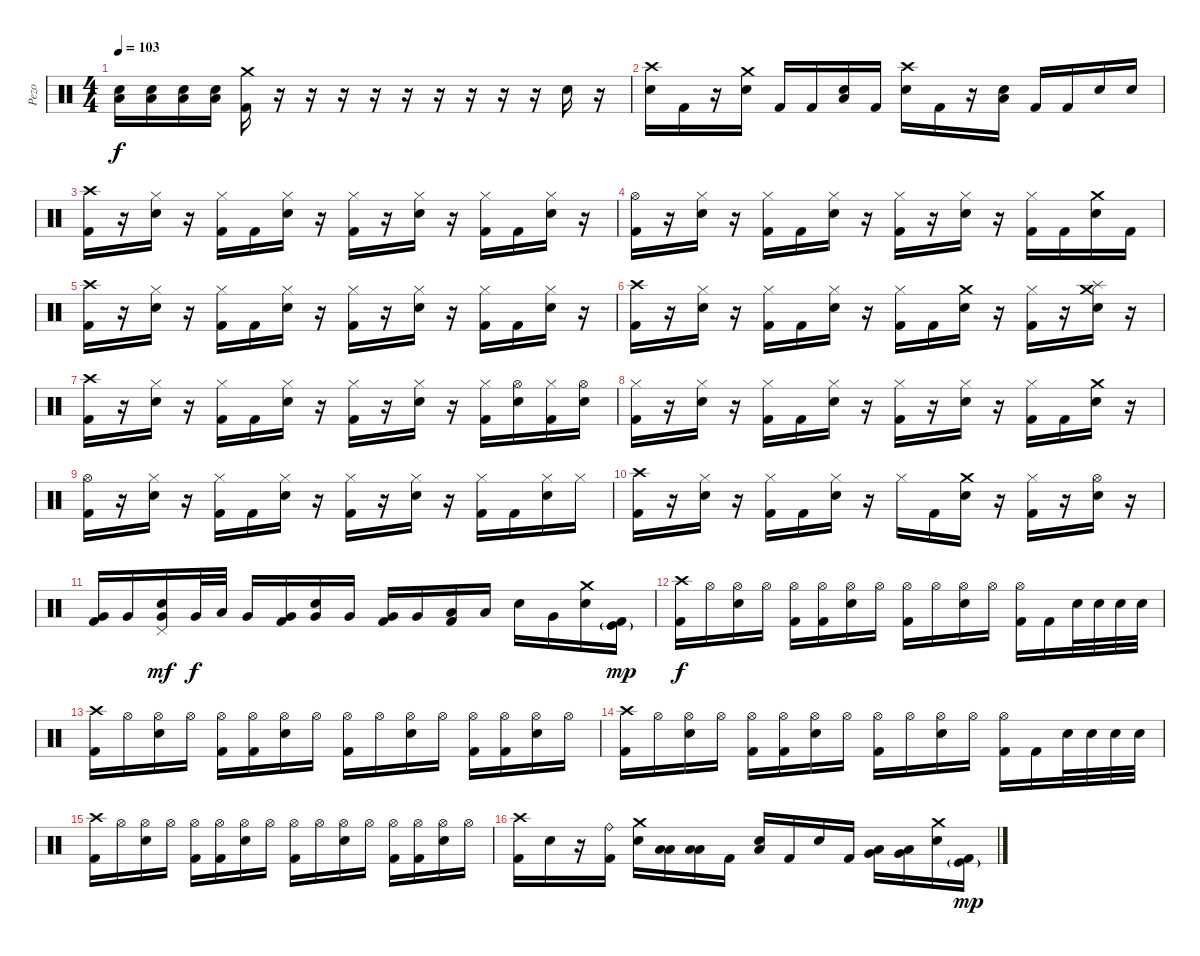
\track ("Pezo" "Pezo") {instrument percussion}
\staff {score}
\articulation defaults
\ts (4 4)
\tempo 103
\clef neutral
\ks c
("Low Floor Tom (hit)" "Electric Snare (hit)").16{dy f} ("Low Floor Tom (hit)" "Electric Snare (hit)").16 ("Low Floor Tom (hit)" "Electric Snare (hit)").16 ("Low Floor Tom (hit)" "Electric Snare (hit)").16 ("Crash medium (hit)" "Kick (hit) 2").16 r.16 r.16 r.16 r.16 r.16 r.16 r.16 r.16 r.16 "Electric Snare (hit)".16 r.16 |
("Crash high (hit)" "Electric Snare (hit)").16 "Kick (hit) 2".16 r.16 ("Crash medium (hit)" "Electric Snare (hit)").16 "Kick (hit) 2".16 "Kick (hit) 2".16 ("Low Floor Tom (hit)" "Electric Snare (hit)").16 "Kick (hit) 2".16 ("Crash high (hit)" "Electric Snare (hit)").16 "Kick (hit) 2".16 r.16 ("Low Floor Tom (hit)" "Electric Snare (hit)").16 "Kick (hit) 2".16 "Kick (hit) 2".16 "Electric Snare (hit)".16 "Electric Snare (hit)".16 |
("Crash high (hit)" "Kick (hit) 2").16 r.16 ("Hi-Hat (closed)" "Electric Snare (hit)").16 r.16 ("Hi-Hat (closed)" "Kick (hit) 2").16 "Kick (hit) 2".16 ("Hi-Hat (closed)" "Electric Snare (hit)").16 r.16 ("Hi-Hat (closed)" "Kick (hit) 2").16 r.16 ("Hi-Hat (closed)" "Electric Snare (hit)").16 r.16 ("Hi-Hat (closed)" "Kick (hit) 2").16 "Kick (hit) 2".16 ("Hi-Hat (closed)" "Electric Snare (hit)").16 r.16 |
("Hi-Hat (open)" "Kick (hit) 2").16 r.16 ("Hi-Hat (closed)" "Electric Snare (hit)").16 r.16 ("Hi-Hat (closed)" "Kick (hit) 2").16 "Kick (hit) 2".16 ("Hi-Hat (closed)" "Electric Snare (hit)").16 r.16 ("Hi-Hat (closed)" "Kick (hit) 2").16 r.16 ("Hi-Hat (closed)" "Electric Snare (hit)").16 r.16 ("Hi-Hat (closed)" "Kick (hit) 2").16 "Kick (hit) 2".16 ("Crash medium (hit)" "Electric Snare (hit)").16 "Kick (hit) 2".16 |
("Crash high (hit)" "Kick (hit) 2").16 r.16 ("Hi-Hat (closed)" "Electric Snare (hit)").16 r.16 ("Hi-Hat (closed)" "Kick (hit) 2").16 "Kick (hit) 2".16 ("Hi-Hat (closed)" "Electric Snare (hit)").16 r.16 ("Hi-Hat (closed)" "Kick (hit) 2").16 r.16 ("Hi-Hat (closed)" "Electric Snare (hit)").16 r.16 ("Hi-Hat (closed)" "Kick (hit) 2").16 "Kick (hit) 2".16 ("Hi-Hat (closed)" "Electric Snare (hit)").16 r.16 |
("Crash high (hit)" "Kick (hit) 2").16 r.16 ("Hi-Hat (closed)" "Electric Snare (hit)").16 r.16 ("Hi-Hat (closed)" "Kick (hit) 2").16 "Kick (hit) 2".16 ("Hi-Hat (closed)" "Electric Snare (hit)").16 r.16 ("Hi-Hat (closed)" "Kick (hit) 2").16 "Kick (hit) 2".16 ("Crash medium (hit)" "Electric Snare (hit)").16 r.16 ("Hi-Hat (closed)" "Kick (hit) 2").16 r.16 ("Crash medium (hit)" "Splash (hit)" "Electric Snare (hit)").16 r.16 |
("Crash high (hit)" "Kick (hit) 2").16 r.16 ("Hi-Hat (closed)" "Electric Snare (hit)").16 r.16 ("Hi-Hat (closed)" "Kick (hit) 2").16 "Kick (hit) 2".16 ("Hi-Hat (closed)" "Electric Snare (hit)").16 r.16 ("Hi-Hat (closed)" "Kick (hit) 2").16 r.16 ("Hi-Hat (closed)" "Electric Snare (hit)").16 r.16 ("Hi-Hat (closed)" "Kick (hit) 2").16 ("Hi-Hat (open)" "Electric Snare (hit)").16 ("Hi-Hat (closed)" "Kick (hit) 2").16 ("Hi-Hat (open)" "Electric Snare (hit)").16 |
("Hi-Hat (closed)" "Kick (hit) 2").16 r.16 ("Hi-Hat (closed)" "Electric Snare (hit)").16 r.16 ("Hi-Hat (closed)" "Kick (hit) 2").16 "Kick (hit) 2".16 ("Hi-Hat (closed)" "Electric Snare (hit)").16 r.16 ("Hi-Hat (closed)" "Kick (hit) 2").16 r.16 ("Hi-Hat (closed)" "Electric Snare (hit)").16 r.16 ("Hi-Hat (closed)" "Kick (hit) 2").16 "Kick (hit) 2".16 ("Crash medium (hit)" "Electric Snare (hit)").16 r.16 |
("Hi-Hat (open)" "Kick (hit) 2").16 r.16 ("Hi-Hat (closed)" "Electric Snare (hit)").16 r.16 ("Hi-Hat (closed)" "Kick (hit) 2").16 "Kick (hit) 2".16 ("Hi-Hat (closed)" "Electric Snare (hit)").16 r.16 ("Hi-Hat (closed)" "Kick (hit) 2").16 r.16 ("Hi-Hat (closed)" "Electric Snare (hit)").16 r.16 ("Hi-Hat (closed)" "Kick (hit) 2").16 "Kick (hit) 2".16 ("Hi-Hat (closed)" "Electric Snare (hit)").16 "Hi-Hat (closed)".16 |
("Crash high (hit)" "Kick (hit) 2").16 r.16 ("Hi-Hat (closed)" "Electric Snare (hit)").16 r.16 ("Hi-Hat (closed)" "Kick (hit) 2").16 "Kick (hit) 2".16 ("Hi-Hat (closed)" "Electric Snare (hit)").16 r.16 "Hi-Hat (closed)".16 "Kick (hit) 2".16 ("Crash medium (hit)" "Electric Snare (hit)").16 r.16 ("Hi-Hat (closed)" "Kick (hit) 2").16 r.16 ("Hi-Hat (open)" "Electric Snare (hit)").16 r.16 |
("Very Low Tom (hit)" "Kick (hit) 2").16 "Very Low Tom (hit)".16 ("Very Low Tom (hit)" "Electric Snare (hit)" "Pedal Hi-Hat (hit)").16{dy mf} "Very Low Tom (hit)".32{dy f} "Low Tom (hit)".32 "Very Low Tom (hit)".16 ("Very Low Tom (hit)" "Kick (hit) 2").16 ("Very Low Tom (hit)" "Electric Snare (hit)").16 "Very Low Tom (hit)".16 ("Very Low Tom (hit)" "Kick (hit) 2").16 "Very Low Tom (hit)".16 ("Low Tom (hit)" "Kick (hit) 2").16 "Low Tom (hit)".16 "Electric Snare (hit)".16 "Very Low Tom (hit)".16 ("Crash medium (hit)" "Electric Snare (hit)").16 ("Kick (hit)"{g} "Kick (hit) 2").16{dy mp} |
("Crash high (hit)" "Kick (hit) 2").16{dy f} "Hi-Hat (open)".16 ("Hi-Hat (open)" "Electric Snare (hit)").16 "Hi-Hat (open)".16 ("Hi-Hat (open)" "Kick (hit) 2").16 ("Hi-Hat (open)" "Kick (hit) 2").16 ("Hi-Hat (open)" "Electric Snare (hit)").16 "Hi-Hat (open)".16 ("Hi-Hat (open)" "Kick (hit) 2").16 "Hi-Hat (open)".16 ("Hi-Hat (open)" "Electric Snare (hit)").16 "Hi-Hat (open)".16 ("Hi-Hat (open)" "Kick (hit) 2").16 "Kick (hit) 2".16 "Electric Snare (hit)".32 "Electric Snare (hit)".32 "Electric Snare (hit)".32 "Electric Snare (hit)".32 |
("Crash high (hit)" "Kick (hit) 2").16 "Hi-Hat (open)".16 ("Hi-Hat (open)" "Electric Snare (hit)").16 "Hi-Hat (open)".16 ("Hi-Hat (open)" "Kick (hit) 2").16 ("Hi-Hat (open)" "Kick (hit) 2").16 ("Hi-Hat (open)" "Electric Snare (hit)").16 "Hi-Hat (open)".16 ("Hi-Hat (open)" "Kick (hit) 2").16 "Hi-Hat (open)".16 ("Hi-Hat (open)" "Electric Snare (hit)").16 "Hi-Hat (open)".16 ("Hi-Hat (open)" "Kick (hit) 2").16 ("Hi-Hat (open)" "Kick (hit) 2").16 ("Hi-Hat (open)" "Electric Snare (hit)").16 "Hi-Hat (open)".16 |
("Crash high (hit)" "Kick (hit) 2").16 "Hi-Hat (open)".16 ("Hi-Hat (open)" "Electric Snare (hit)").16 "Hi-Hat (open)".16 ("Hi-Hat (open)" "Kick (hit) 2").16 ("Hi-Hat (open)" "Kick (hit) 2").16 ("Hi-Hat (open)" "Electric Snare (hit)").16 "Hi-Hat (open)".16 ("Hi-Hat (open)" "Kick (hit) 2").16 "Hi-Hat (open)".16 ("Hi-Hat (open)" "Electric Snare (hit)").16 "Hi-Hat (open)".16 ("Hi-Hat (open)" "Kick (hit) 2").16 "Kick (hit) 2".16 "Electric Snare (hit)".32 "Electric Snare (hit)".32 "Electric Snare (hit)".32 "Electric Snare (hit)".32 |
("Crash high (hit)" "Kick (hit) 2").16 "Hi-Hat (open)".16 ("Hi-Hat (open)" "Electric Snare (hit)").16 "Hi-Hat (open)".16 ("Hi-Hat (open)" "Kick (hit) 2").16 ("Hi-Hat (open)" "Kick (hit) 2").16 ("Hi-Hat (open)" "Electric Snare (hit)").16 "Hi-Hat (open)".16 ("Hi-Hat (open)" "Kick (hit) 2").16 "Hi-Hat (open)".16 ("Hi-Hat (open)" "Electric Snare (hit)").16 "Hi-Hat (open)".16 ("Hi-Hat (open)" "Kick (hit) 2").16 ("Hi-Hat (open)" "Kick (hit) 2").16 ("Hi-Hat (open)" "Electric Snare (hit)").16 "Hi-Hat (open)".16 |
("Crash high (hit)" "Kick (hit) 2").16 "Electric Snare (hit)".16 r.16 ("Ride (bell)" "Kick (hit) 2").16 ("Crash medium (hit)" "Electric Snare (hit)").16 ("Low Tom (hit)" "Low Tom (hit)").16 ("Low Tom (hit)" "Low Tom (hit)").16 "Kick (hit) 2".16 ("Low Floor Tom (hit)" "Electric Snare (hit)").16 "Kick (hit) 2".16 "Electric Snare (hit)".16 "Kick (hit) 2".16 ("Low Tom (hit)" "Very Low Tom (hit)").16 ("Low Tom (hit)" "Very Low Tom (hit)").16 ("Crash medium (hit)" "Electric Snare (hit)").16 ("Kick (hit)"{g} "Kick (hit) 2").16{dy mp}
